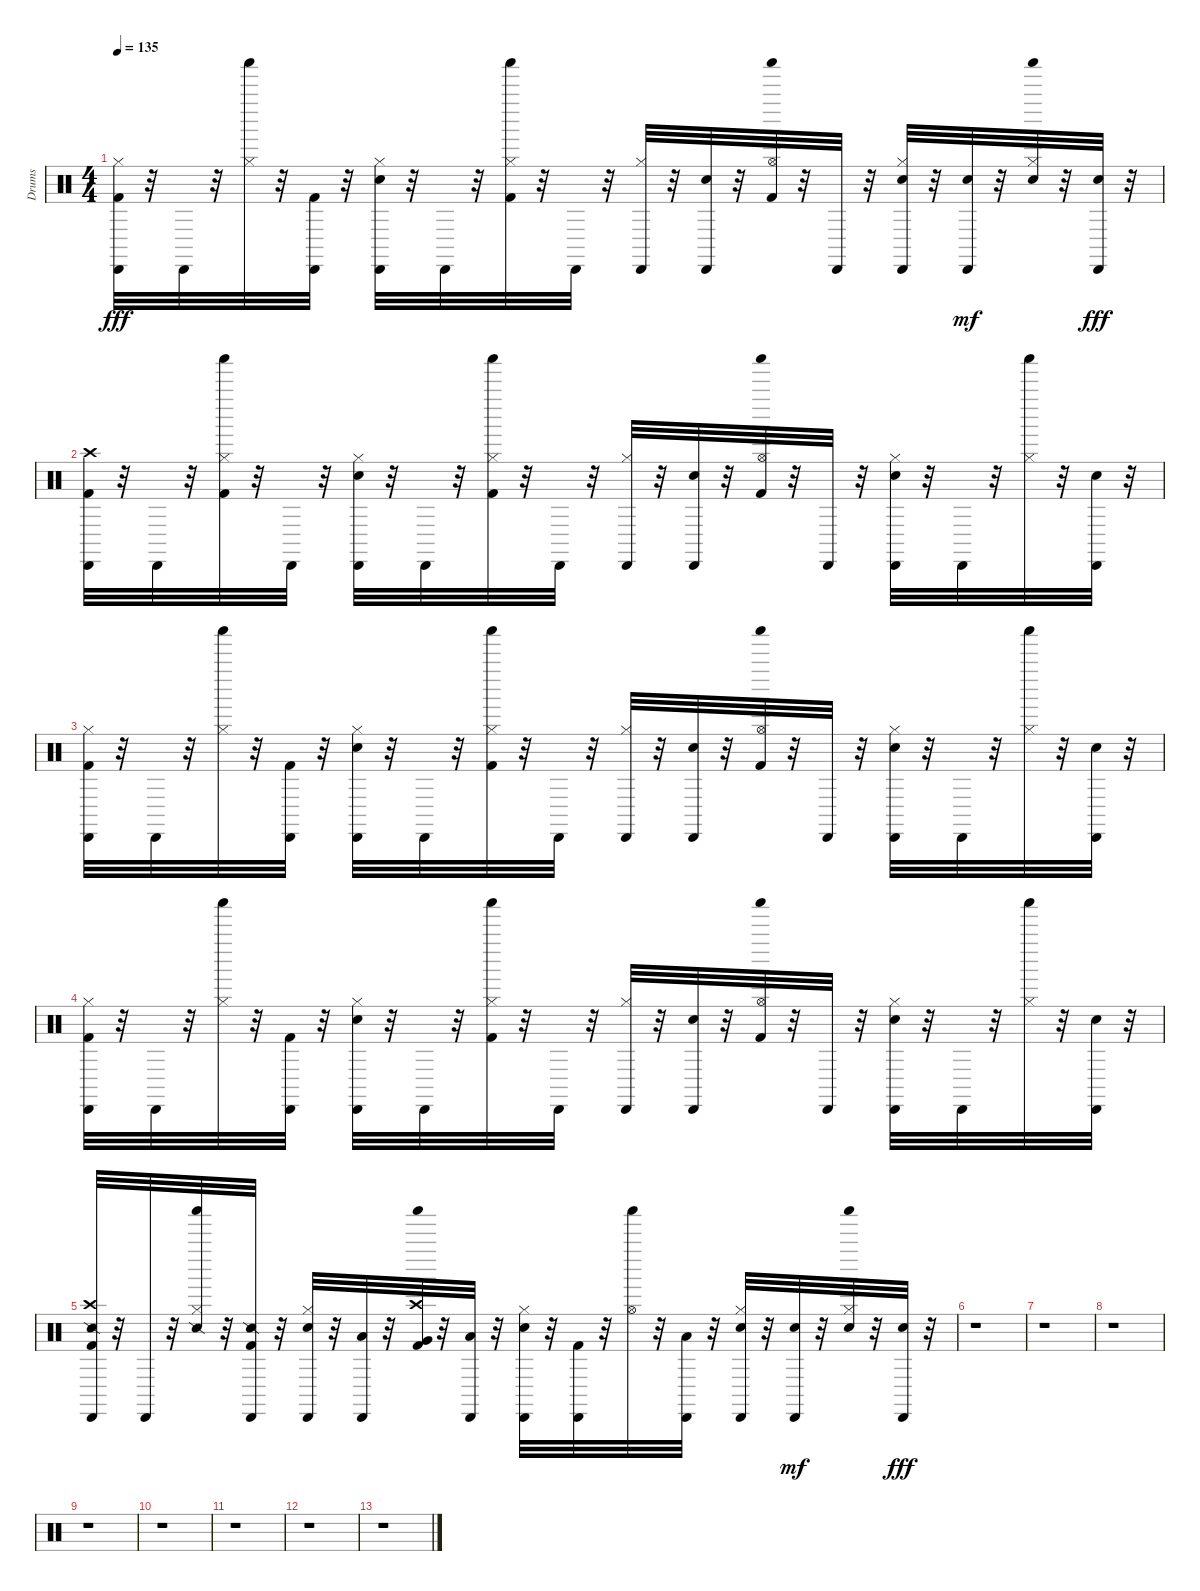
\track ("Drums" "Drums") {instrument percussion}
\staff {score}
\articulation defaults
\ts (4 4)
\tempo 135
\clef neutral
\ks c
("Hi-Hat (closed)" "Kick (hit) 2" "Cabasa (hit)").32{dy fff} r.32 "Cabasa (hit)".32 r.32 ("Shaker (hit)" "Hi-Hat (closed)").32 r.32 ("Kick (hit) 2" "Cabasa (hit)").32 r.32 ("Snare (hit) 2" "Hi-Hat (closed)" "Cabasa (hit)").32 r.32 "Cabasa (hit)".32 r.32 ("Kick (hit) 2" "Shaker (hit)" "Hi-Hat (closed)").32 r.32 "Cabasa (hit)".32 r.32 ("Hi-Hat (closed)" "Cabasa (hit)").32 r.32 ("Snare (hit) 2" "Cabasa (hit)").32 r.32 ("Kick (hit) 2" "Shaker (hit)" "Hi-Hat (open)").32 r.32 "Cabasa (hit)".32 r.32 ("Snare (hit) 2" "Hi-Hat (closed)" "Cabasa (hit)").32 r.32 ("Cabasa (hit)" "Snare (hit) 2").32{dy mf} r.32 ("Shaker (hit)" "Hi-Hat (closed)" "Snare (hit) 2").32 r.32 ("Snare (hit) 2" "Cabasa (hit)").32{dy fff} r.32 |
("Crash high (hit)" "Kick (hit) 2" "Cabasa (hit)").32 r.32 "Cabasa (hit)".32 r.32 ("Shaker (hit)" "Hi-Hat (closed)" "Kick (hit) 2").32 r.32 "Cabasa (hit)".32 r.32 ("Snare (hit) 2" "Hi-Hat (closed)" "Cabasa (hit)").32 r.32 "Cabasa (hit)".32 r.32 ("Kick (hit) 2" "Shaker (hit)" "Hi-Hat (closed)").32 r.32 "Cabasa (hit)".32 r.32 ("Hi-Hat (closed)" "Cabasa (hit)").32 r.32 ("Snare (hit) 2" "Cabasa (hit)").32 r.32 ("Kick (hit) 2" "Shaker (hit)" "Hi-Hat (open)").32 r.32 "Cabasa (hit)".32 r.32 ("Snare (hit) 2" "Hi-Hat (closed)" "Cabasa (hit)").32 r.32 "Cabasa (hit)".32 r.32 ("Shaker (hit)" "Hi-Hat (closed)").32 r.32 ("Snare (hit) 2" "Cabasa (hit)").32 r.32 |
("Hi-Hat (closed)" "Kick (hit) 2" "Cabasa (hit)").32 r.32 "Cabasa (hit)".32 r.32 ("Shaker (hit)" "Hi-Hat (closed)").32 r.32 ("Kick (hit) 2" "Cabasa (hit)").32 r.32 ("Snare (hit) 2" "Hi-Hat (closed)" "Cabasa (hit)").32 r.32 "Cabasa (hit)".32 r.32 ("Kick (hit) 2" "Shaker (hit)" "Hi-Hat (closed)").32 r.32 "Cabasa (hit)".32 r.32 ("Hi-Hat (closed)" "Cabasa (hit)").32 r.32 ("Snare (hit) 2" "Cabasa (hit)").32 r.32 ("Kick (hit) 2" "Shaker (hit)" "Hi-Hat (open)").32 r.32 "Cabasa (hit)".32 r.32 ("Snare (hit) 2" "Hi-Hat (closed)" "Cabasa (hit)").32 r.32 "Cabasa (hit)".32 r.32 ("Shaker (hit)" "Hi-Hat (closed)").32 r.32 ("Snare (hit) 2" "Cabasa (hit)").32 r.32 |
("Hi-Hat (closed)" "Kick (hit) 2" "Cabasa (hit)").32 r.32 "Cabasa (hit)".32 r.32 ("Shaker (hit)" "Hi-Hat (closed)").32 r.32 ("Kick (hit) 2" "Cabasa (hit)").32 r.32 ("Snare (hit) 2" "Hi-Hat (closed)" "Cabasa (hit)").32 r.32 "Cabasa (hit)".32 r.32 ("Kick (hit) 2" "Shaker (hit)" "Hi-Hat (closed)").32 r.32 "Cabasa (hit)".32 r.32 ("Hi-Hat (closed)" "Cabasa (hit)").32 r.32 ("Snare (hit) 2" "Cabasa (hit)").32 r.32 ("Kick (hit) 2" "Shaker (hit)" "Hi-Hat (open)").32 r.32 "Cabasa (hit)".32 r.32 ("Snare (hit) 2" "Hi-Hat (closed)" "Cabasa (hit)").32 r.32 "Cabasa (hit)".32 r.32 ("Shaker (hit)" "Hi-Hat (closed)").32 r.32 ("Snare (hit) 2" "Cabasa (hit)").32 r.32 |
("Crash high (hit)" "Kick (hit) 2" "Cabasa (hit)" "Snare (side stick) 2").32 r.32 "Cabasa (hit)".32 r.32 ("Shaker (hit)" "Hi-Hat (closed)" "Snare (side stick) 2").32 r.32 ("Kick (hit) 2" "Cabasa (hit)" "Snare (side stick) 2").32 r.32 ("Snare (hit) 2" "Hi-Hat (closed)" "Cabasa (hit)").32 r.32 ("Cabasa (hit)" "Low Tom (hit)").32 r.32 ("Kick (hit) 2" "Shaker (hit)" "Crash high (hit)" "Very Low Tom (hit)").32 r.32 ("Cabasa (hit)" "Low Floor Tom (hit)").32 r.32 ("Hi-Hat (closed)" "Cabasa (hit)" "Snare (hit) 2").32 r.32 ("Cabasa (hit)" "Kick (hit) 2").32 r.32 ("Shaker (hit)" "Hi-Hat (open)").32 r.32 ("Cabasa (hit)" "Low Floor Tom (hit)").32 r.32 ("Snare (hit) 2" "Hi-Hat (closed)" "Cabasa (hit)").32 r.32 ("Cabasa (hit)" "Snare (hit) 2").32{dy mf} r.32 ("Shaker (hit)" "Hi-Hat (closed)" "Snare (hit) 2").32 r.32 ("Snare (hit) 2" "Cabasa (hit)").32{dy fff} r.32 |
r.1 |
r.1 |
r.1 |
r.1 |
r.1 |
r.1 |
r.1 |
r.1
